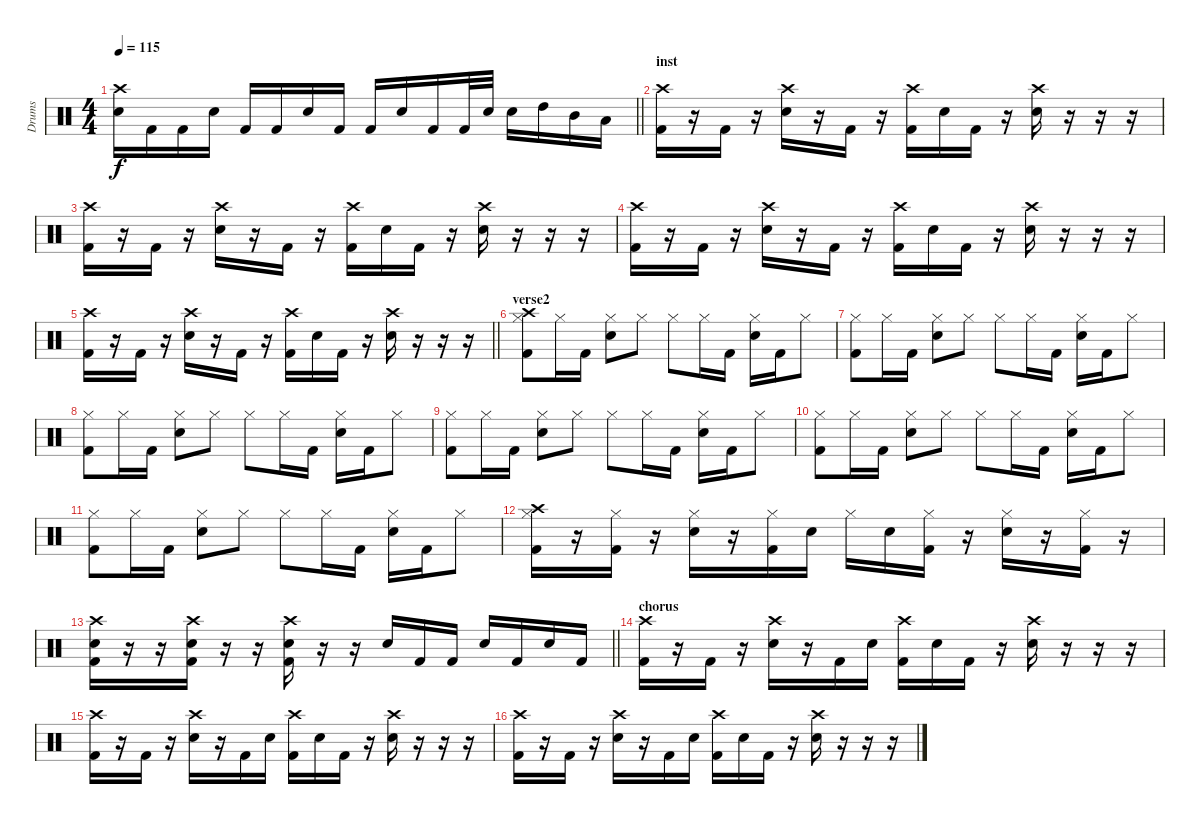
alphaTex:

\track ("Drums" "Drums") {instrument percussion}
\staff {score}
\articulation defaults
\ts (4 4)
\tempo 115
\clef neutral
\barLineRight lightlight
\ks c
("Crash high (hit)" "Snare (hit) 2").16{dy f} "Kick (hit) 2".16 "Kick (hit) 2".16 "Snare (hit) 2".16 "Kick (hit) 2".16 "Kick (hit) 2".16 "Snare (hit) 2".16 "Kick (hit) 2".16 "Kick (hit) 2".16 "Snare (hit) 2".16 "Kick (hit) 2".16 "Kick (hit) 2".32 "Snare (hit) 2".32 "Snare (hit) 2".16 "High Tom (hit)".16 "Mid Tom (hit)".16 "Low Tom (hit)".16 |
\section ("" "inst")
("Crash high (hit)" "Kick (hit) 2").16 r.16 "Kick (hit) 2".16 r.16 ("Crash high (hit)" "Snare (hit) 2").16 r.16 "Kick (hit) 2".16 r.16 ("Crash high (hit)" "Kick (hit) 2").16 "Snare (hit) 2".16 "Kick (hit) 2".16 r.16 ("Crash high (hit)" "Snare (hit) 2").16 r.16 r.16 r.16 |
("Crash high (hit)" "Kick (hit) 2").16 r.16 "Kick (hit) 2".16 r.16 ("Crash high (hit)" "Snare (hit) 2").16 r.16 "Kick (hit) 2".16 r.16 ("Crash high (hit)" "Kick (hit) 2").16 "Snare (hit) 2".16 "Kick (hit) 2".16 r.16 ("Crash high (hit)" "Snare (hit) 2").16 r.16 r.16 r.16 |
("Crash high (hit)" "Kick (hit) 2").16 r.16 "Kick (hit) 2".16 r.16 ("Crash high (hit)" "Snare (hit) 2").16 r.16 "Kick (hit) 2".16 r.16 ("Crash high (hit)" "Kick (hit) 2").16 "Snare (hit) 2".16 "Kick (hit) 2".16 r.16 ("Crash high (hit)" "Snare (hit) 2").16 r.16 r.16 r.16 |
\barLineRight lightlight
("Crash high (hit)" "Kick (hit) 2").16 r.16 "Kick (hit) 2".16 r.16 ("Crash high (hit)" "Snare (hit) 2").16 r.16 "Kick (hit) 2".16 r.16 ("Crash high (hit)" "Kick (hit) 2").16 "Snare (hit) 2".16 "Kick (hit) 2".16 r.16 ("Crash high (hit)" "Snare (hit) 2").16 r.16 r.16 r.16 |
\section ("" "verse2")
("Crash high (hit)" "Hi-Hat (closed)" "Kick (hit) 2").8 "Hi-Hat (closed)".16 "Kick (hit) 2".16 ("Hi-Hat (closed)" "Snare (hit) 2").8 "Hi-Hat (closed)".8 "Hi-Hat (closed)".8 "Hi-Hat (closed)".16 "Kick (hit) 2".16 ("Hi-Hat (closed)" "Snare (hit) 2").16 "Kick (hit) 2".16 "Hi-Hat (closed)".8 |
("Hi-Hat (closed)" "Kick (hit) 2").8 "Hi-Hat (closed)".16 "Kick (hit) 2".16 ("Hi-Hat (closed)" "Snare (hit) 2").8 "Hi-Hat (closed)".8 "Hi-Hat (closed)".8 "Hi-Hat (closed)".16 "Kick (hit) 2".16 ("Hi-Hat (closed)" "Snare (hit) 2").16 "Kick (hit) 2".16 "Hi-Hat (closed)".8 |
("Hi-Hat (closed)" "Kick (hit) 2").8 "Hi-Hat (closed)".16 "Kick (hit) 2".16 ("Hi-Hat (closed)" "Snare (hit) 2").8 "Hi-Hat (closed)".8 "Hi-Hat (closed)".8 "Hi-Hat (closed)".16 "Kick (hit) 2".16 ("Hi-Hat (closed)" "Snare (hit) 2").16 "Kick (hit) 2".16 "Hi-Hat (closed)".8 |
("Hi-Hat (closed)" "Kick (hit) 2").8 "Hi-Hat (closed)".16 "Kick (hit) 2".16 ("Hi-Hat (closed)" "Snare (hit) 2").8 "Hi-Hat (closed)".8 "Hi-Hat (closed)".8 "Hi-Hat (closed)".16 "Kick (hit) 2".16 ("Hi-Hat (closed)" "Snare (hit) 2").16 "Kick (hit) 2".16 "Hi-Hat (closed)".8 |
("Hi-Hat (closed)" "Kick (hit) 2").8 "Hi-Hat (closed)".16 "Kick (hit) 2".16 ("Hi-Hat (closed)" "Snare (hit) 2").8 "Hi-Hat (closed)".8 "Hi-Hat (closed)".8 "Hi-Hat (closed)".16 "Kick (hit) 2".16 ("Hi-Hat (closed)" "Snare (hit) 2").16 "Kick (hit) 2".16 "Hi-Hat (closed)".8 |
("Hi-Hat (closed)" "Kick (hit) 2").8 "Hi-Hat (closed)".16 "Kick (hit) 2".16 ("Hi-Hat (closed)" "Snare (hit) 2").8 "Hi-Hat (closed)".8 "Hi-Hat (closed)".8 "Hi-Hat (closed)".16 "Kick (hit) 2".16 ("Hi-Hat (closed)" "Snare (hit) 2").16 "Kick (hit) 2".16 "Hi-Hat (closed)".8 |
("Crash high (hit)" "Hi-Hat (closed)" "Kick (hit) 2").16 r.16 ("Hi-Hat (closed)" "Kick (hit) 2").16 r.16 ("Hi-Hat (closed)" "Snare (hit) 2").16 r.16 ("Hi-Hat (closed)" "Kick (hit) 2").16 "Snare (hit) 2".16 "Hi-Hat (closed)".16 "Snare (hit) 2".16 ("Hi-Hat (closed)" "Kick (hit) 2").16 r.16 ("Hi-Hat (closed)" "Snare (hit) 2").16 r.16 ("Hi-Hat (closed)" "Kick (hit) 2").16 r.16 |
\barLineRight lightlight
("Crash high (hit)" "Snare (hit) 2" "Kick (hit) 2").16 r.16 r.16 ("Crash high (hit)" "Snare (hit) 2" "Kick (hit) 2").16 r.16 r.16 ("Crash high (hit)" "Snare (hit) 2" "Kick (hit) 2").16 r.16 r.16 "Snare (hit) 2".16 "Kick (hit) 2".16 "Kick (hit) 2".16 "Snare (hit) 2".16 "Kick (hit) 2".16 "Snare (hit) 2".16 "Kick (hit) 2".16 |
\section ("" "chorus")
("Crash high (hit)" "Kick (hit) 2").16 r.16 "Kick (hit) 2".16 r.16 ("Crash high (hit)" "Snare (hit) 2").16 r.16 "Kick (hit) 2".16 "Snare (hit) 2".16 ("Crash high (hit)" "Kick (hit) 2").16 "Snare (hit) 2".16 "Kick (hit) 2".16 r.16 ("Crash high (hit)" "Snare (hit) 2").16 r.16 r.16 r.16 |
("Crash high (hit)" "Kick (hit) 2").16 r.16 "Kick (hit) 2".16 r.16 ("Crash high (hit)" "Snare (hit) 2").16 r.16 "Kick (hit) 2".16 "Snare (hit) 2".16 ("Crash high (hit)" "Kick (hit) 2").16 "Snare (hit) 2".16 "Kick (hit) 2".16 r.16 ("Crash high (hit)" "Snare (hit) 2").16 r.16 r.16 r.16 |
("Crash high (hit)" "Kick (hit) 2").16 r.16 "Kick (hit) 2".16 r.16 ("Crash high (hit)" "Snare (hit) 2").16 r.16 "Kick (hit) 2".16 "Snare (hit) 2".16 ("Crash high (hit)" "Kick (hit) 2").16 "Snare (hit) 2".16 "Kick (hit) 2".16 r.16 ("Crash high (hit)" "Snare (hit) 2").16 r.16 r.16 r.16
